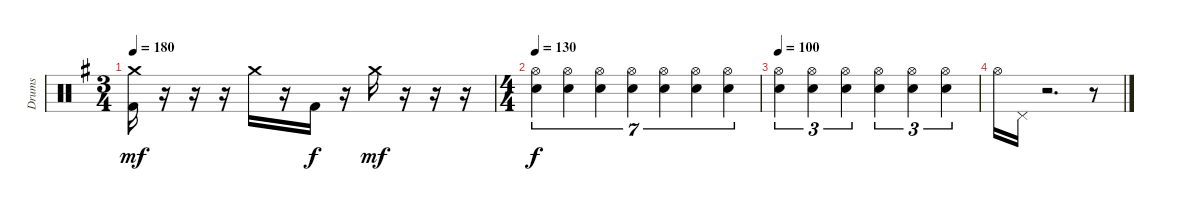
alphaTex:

\track ("Drums" "Drums") {instrument percussion}
\staff {score}
\articulation defaults
\ts (3 4)
\tempo 180
\clef neutral
\ks g
("Crash medium (hit)" "Kick (hit) 2").16{dy mf} r.16 r.16 r.16 "Crash medium (hit)".16 r.16 "Kick (hit) 2".16{dy f} r.16 "Crash medium (hit)".16{dy mf} r.16 r.16 r.16 |
\ts (4 4)
\tempo 130
("Hi-Hat (open)" "Snare (hit) 2").4{tu (7 4) dy f} ("Hi-Hat (open)" "Snare (hit) 2").4{tu (7 4)} ("Hi-Hat (open)" "Snare (hit) 2").4{tu (7 4)} ("Hi-Hat (open)" "Snare (hit) 2").4{tu (7 4)} ("Hi-Hat (open)" "Snare (hit) 2").4{tu (7 4)} ("Hi-Hat (open)" "Snare (hit) 2").4{tu (7 4)} ("Hi-Hat (open)" "Snare (hit) 2").4{tu (7 4)} |
\tempo 100
("Hi-Hat (open)" "Snare (hit) 2").4{tu (3 2)} ("Hi-Hat (open)" "Snare (hit) 2").4{tu (3 2)} ("Hi-Hat (open)" "Snare (hit) 2").4{tu (3 2)} ("Hi-Hat (open)" "Snare (hit) 2").4{tu (3 2)} ("Hi-Hat (open)" "Snare (hit) 2").4{tu (3 2)} ("Hi-Hat (open)" "Snare (hit) 2").4{tu (3 2)} |
"Hi-Hat (open)".16 "Pedal Hi-Hat (hit)".16 r.2{d} r.8
